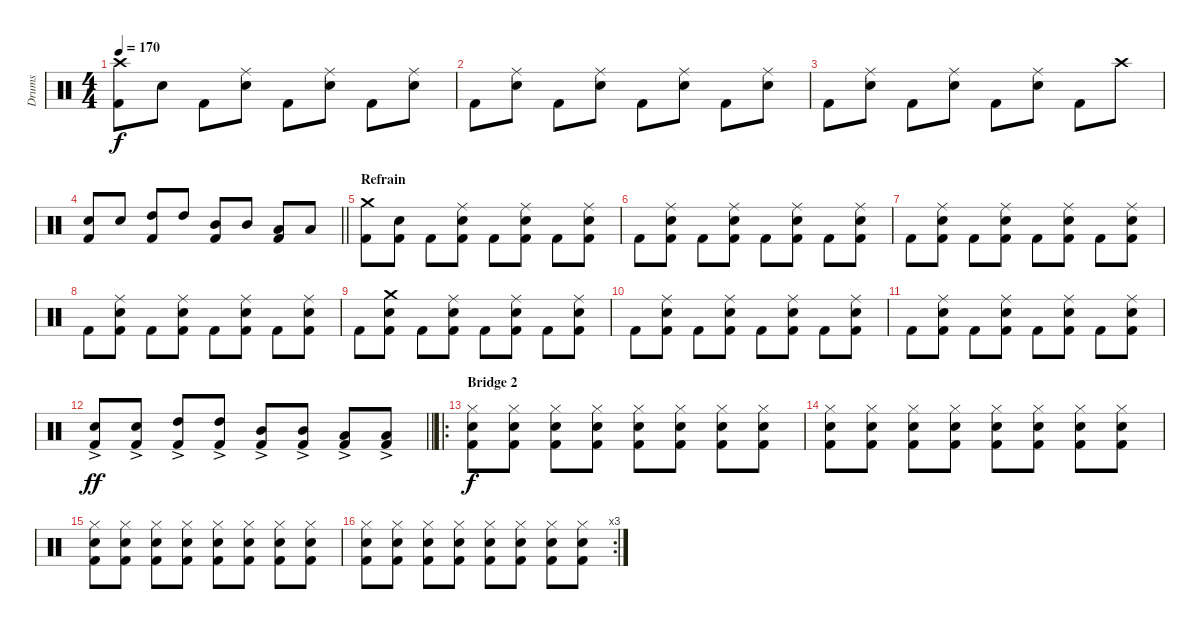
\track ("Drums" "Drums") {instrument percussion}
\staff {score}
\articulation defaults
\ts (4 4)
\tempo 170
\clef neutral
\ks c
("Crash high (hit)" "Kick (hit) 2").8{dy f} "Snare (hit) 2".8 "Kick (hit) 2".8 ("Ride (middle)" "Snare (hit) 2").8 "Kick (hit) 2".8 ("Ride (middle)" "Snare (hit) 2").8 "Kick (hit) 2".8 ("Ride (middle)" "Snare (hit) 2").8 |
"Kick (hit) 2".8 ("Ride (middle)" "Snare (hit) 2").8 "Kick (hit) 2".8 ("Ride (middle)" "Snare (hit) 2").8 "Kick (hit) 2".8 ("Ride (middle)" "Snare (hit) 2").8 "Kick (hit) 2".8 ("Ride (middle)" "Snare (hit) 2").8 |
"Kick (hit) 2".8 ("Ride (middle)" "Snare (hit) 2").8 "Kick (hit) 2".8 ("Ride (middle)" "Snare (hit) 2").8 "Kick (hit) 2".8 ("Ride (middle)" "Snare (hit) 2").8 "Kick (hit) 2".8 "Crash high (hit)".8 |
\barLineRight lightlight
("Snare (hit) 2" "Kick (hit) 2").8 "Snare (hit) 2".8 ("High Tom (hit)" "Kick (hit) 2").8 "High Tom (hit)".8 ("Mid Tom (hit)" "Kick (hit) 2").8 "Mid Tom (hit)".8 ("Low Tom (hit)" "Kick (hit) 2").8 "Low Tom (hit)".8 |
\section ("" "Refrain")
("Crash medium (hit)" "Kick (hit) 2").8 ("Snare (hit) 2" "Kick (hit) 2").8 "Kick (hit) 2".8 ("Ride (middle)" "Snare (hit) 2" "Kick (hit) 2").8 "Kick (hit) 2".8 ("Ride (middle)" "Snare (hit) 2" "Kick (hit) 2").8 "Kick (hit) 2".8 ("Ride (middle)" "Snare (hit) 2" "Kick (hit) 2").8 |
"Kick (hit) 2".8 ("Ride (middle)" "Snare (hit) 2" "Kick (hit) 2").8 "Kick (hit) 2".8 ("Ride (middle)" "Snare (hit) 2" "Kick (hit) 2").8 "Kick (hit) 2".8 ("Ride (middle)" "Snare (hit) 2" "Kick (hit) 2").8 "Kick (hit) 2".8 ("Ride (middle)" "Snare (hit) 2" "Kick (hit) 2").8 |
"Kick (hit) 2".8 ("Ride (middle)" "Snare (hit) 2" "Kick (hit) 2").8 "Kick (hit) 2".8 ("Ride (middle)" "Snare (hit) 2" "Kick (hit) 2").8 "Kick (hit) 2".8 ("Ride (middle)" "Snare (hit) 2" "Kick (hit) 2").8 "Kick (hit) 2".8 ("Ride (middle)" "Snare (hit) 2" "Kick (hit) 2").8 |
"Kick (hit) 2".8 ("Ride (middle)" "Snare (hit) 2" "Kick (hit) 2").8 "Kick (hit) 2".8 ("Ride (middle)" "Snare (hit) 2" "Kick (hit) 2").8 "Kick (hit) 2".8 ("Ride (middle)" "Snare (hit) 2" "Kick (hit) 2").8 "Kick (hit) 2".8 ("Ride (middle)" "Snare (hit) 2" "Kick (hit) 2").8 |
"Kick (hit) 2".8 ("Crash medium (hit)" "Snare (hit) 2" "Kick (hit) 2").8 "Kick (hit) 2".8 ("Ride (middle)" "Snare (hit) 2" "Kick (hit) 2").8 "Kick (hit) 2".8 ("Ride (middle)" "Snare (hit) 2" "Kick (hit) 2").8 "Kick (hit) 2".8 ("Ride (middle)" "Snare (hit) 2" "Kick (hit) 2").8 |
"Kick (hit) 2".8 ("Ride (middle)" "Snare (hit) 2" "Kick (hit) 2").8 "Kick (hit) 2".8 ("Ride (middle)" "Snare (hit) 2" "Kick (hit) 2").8 "Kick (hit) 2".8 ("Ride (middle)" "Snare (hit) 2" "Kick (hit) 2").8 "Kick (hit) 2".8 ("Ride (middle)" "Snare (hit) 2" "Kick (hit) 2").8 |
"Kick (hit) 2".8 ("Ride (middle)" "Snare (hit) 2" "Kick (hit) 2").8 "Kick (hit) 2".8 ("Ride (middle)" "Snare (hit) 2" "Kick (hit) 2").8 "Kick (hit) 2".8 ("Ride (middle)" "Snare (hit) 2" "Kick (hit) 2").8 "Kick (hit) 2".8 ("Ride (middle)" "Snare (hit) 2" "Kick (hit) 2").8 |
\barLineRight lightlight
("Snare (hit) 2"{ac} "Kick (hit) 2").8{dy ff} ("Snare (hit) 2"{ac} "Kick (hit) 2").8 ("High Tom (hit)"{ac} "Kick (hit) 2").8 ("High Tom (hit)"{ac} "Kick (hit) 2").8 ("Mid Tom (hit)"{ac} "Kick (hit) 2").8 ("Mid Tom (hit)"{ac} "Kick (hit) 2").8 ("Low Tom (hit)"{ac} "Kick (hit) 2").8 ("Low Tom (hit)"{ac} "Kick (hit) 2").8 |
\ro
\section ("" "Bridge 2")
("Hi-Hat (closed)" "Snare (hit) 2" "Kick (hit) 2").8{dy f} ("Hi-Hat (closed)" "Snare (hit) 2" "Kick (hit) 2").8 ("Hi-Hat (closed)" "Snare (hit) 2" "Kick (hit) 2").8 ("Hi-Hat (closed)" "Snare (hit) 2" "Kick (hit) 2").8 ("Hi-Hat (closed)" "Snare (hit) 2" "Kick (hit) 2").8 ("Hi-Hat (closed)" "Snare (hit) 2" "Kick (hit) 2").8 ("Hi-Hat (closed)" "Snare (hit) 2" "Kick (hit) 2").8 ("Hi-Hat (closed)" "Snare (hit) 2" "Kick (hit) 2").8 |
("Hi-Hat (closed)" "Snare (hit) 2" "Kick (hit) 2").8 ("Hi-Hat (closed)" "Snare (hit) 2" "Kick (hit) 2").8 ("Hi-Hat (closed)" "Snare (hit) 2" "Kick (hit) 2").8 ("Hi-Hat (closed)" "Snare (hit) 2" "Kick (hit) 2").8 ("Hi-Hat (closed)" "Snare (hit) 2" "Kick (hit) 2").8 ("Hi-Hat (closed)" "Snare (hit) 2" "Kick (hit) 2").8 ("Hi-Hat (closed)" "Snare (hit) 2" "Kick (hit) 2").8 ("Hi-Hat (closed)" "Snare (hit) 2" "Kick (hit) 2").8 |
("Hi-Hat (closed)" "Snare (hit) 2" "Kick (hit) 2").8 ("Hi-Hat (closed)" "Snare (hit) 2" "Kick (hit) 2").8 ("Hi-Hat (closed)" "Snare (hit) 2" "Kick (hit) 2").8 ("Hi-Hat (closed)" "Snare (hit) 2" "Kick (hit) 2").8 ("Hi-Hat (closed)" "Snare (hit) 2" "Kick (hit) 2").8 ("Hi-Hat (closed)" "Snare (hit) 2" "Kick (hit) 2").8 ("Hi-Hat (closed)" "Snare (hit) 2" "Kick (hit) 2").8 ("Hi-Hat (closed)" "Snare (hit) 2" "Kick (hit) 2").8 |
\rc 3
("Hi-Hat (closed)" "Snare (hit) 2" "Kick (hit) 2").8 ("Hi-Hat (closed)" "Snare (hit) 2" "Kick (hit) 2").8 ("Hi-Hat (closed)" "Snare (hit) 2" "Kick (hit) 2").8 ("Hi-Hat (closed)" "Snare (hit) 2" "Kick (hit) 2").8 ("Hi-Hat (closed)" "Snare (hit) 2" "Kick (hit) 2").8 ("Hi-Hat (closed)" "Snare (hit) 2" "Kick (hit) 2").8 ("Hi-Hat (closed)" "Snare (hit) 2" "Kick (hit) 2").8 ("Hi-Hat (closed)" "Snare (hit) 2" "Kick (hit) 2").8
